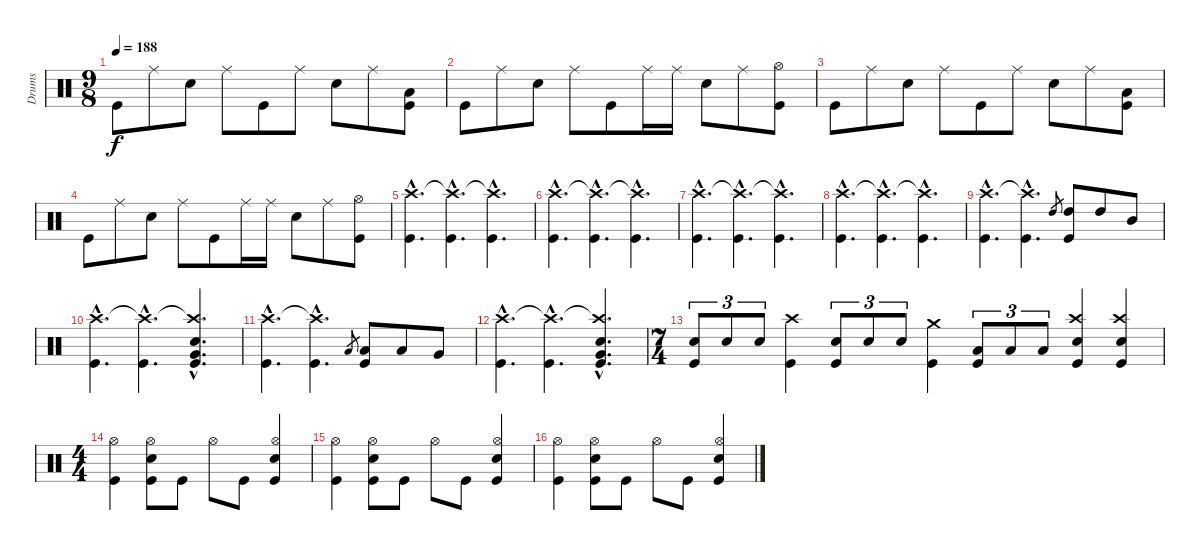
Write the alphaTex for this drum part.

\track ("Drums" "Drums") {instrument percussion}
\staff {score}
\articulation defaults
\ts (9 8)
\tempo 188
\clef neutral
\ks c "Kick (hit)".8{dy f} "Ride (middle)".8 "Snare (hit) 2".8 "Ride (middle)".8 "Kick (hit)".8 "Ride (middle)".8 "Snare (hit) 2".8 "Ride (middle)".8
("Low Tom (hit)" "Kick (hit)").8 |
"Kick (hit)".8 "Ride (middle)".8 "Snare (hit) 2".8 "Ride (middle)".8 "Kick (hit)".8 "Ride (middle)".16 "Ride (middle)".16 "Snare (hit) 2".8 "Ride (middle)".8 ("Hi-Hat (open)" "Kick (hit)").8 |
"Kick (hit)".8 "Ride (middle)".8 "Snare (hit) 2".8 "Ride (middle)".8 "Kick (hit)".8 "Ride (middle)".8 "Snare (hit) 2".8 "Ride (middle)".8 ("Low Tom (hit)" "Kick (hit)").8 |
"Kick (hit)".8 "Ride (middle)".8 "Snare (hit) 2".8 "Ride (middle)".8 "Kick (hit)".8 "Ride (middle)".16 "Ride (middle)".16 "Snare (hit) 2".8 "Ride (middle)".8 ("Hi-Hat (open)" "Kick (hit)").8 |
("Crash high (hit)"{hac} "Kick (hit)"{hac}).4{d} ("Crash high (hit)"{hac t} "Kick (hit)"{hac}).4{d} ("Crash high (hit)"{hac t} "Kick (hit)"{hac}).4{d} |
("Crash high (hit)"{hac} "Kick (hit)"{hac}).4{d} ("Crash high (hit)"{hac t} "Kick (hit)"{hac}).4{d} ("Crash high (hit)"{hac t} "Kick (hit)"{hac}).4{d} |
("Crash high (hit)"{hac} "Kick (hit)"{hac}).4{d} ("Crash high (hit)"{hac t} "Kick (hit)"{hac}).4{d} ("Crash high (hit)"{hac t} "Kick (hit)"{hac}).4{d} |
("Crash high (hit)"{hac} "Kick (hit)"{hac}).4{d} ("Crash high (hit)"{hac t} "Kick (hit)"{hac}).4{d} ("Crash high (hit)"{hac t} "Kick (hit)"{hac}).4{d} |
("Crash high (hit)"{hac} "Kick (hit)"{hac}).4{d} ("Crash high (hit)"{hac t} "Kick (hit)"{hac}).4{d} "High Tom (hit)".8{gr} ("High Tom (hit)" "Kick (hit)").8 "High Tom (hit)".8 "Mid Tom (hit)".8 |
("Crash high (hit)"{hac} "Kick (hit)"{hac}).4{d} ("Crash high (hit)"{hac t} "Kick (hit)"{hac}).4{d} ("Crash high (hit)"{hac t} "Electric Snare (hit)"{hac} "Very Low Tom (hit)"{hac} "Kick (hit)"{hac}).4{d} |
("Crash high (hit)"{hac} "Kick (hit)"{hac}).4{d} ("Crash high (hit)"{hac t} "Kick (hit)"{hac}).4{d} "Low Tom (hit)".8{gr} ("Low Tom (hit)" "Kick (hit)").8 "Low Tom (hit)".8 "Very Low Tom (hit)".8 |
("Crash high (hit)"{hac} "Kick (hit)"{hac}).4{d} ("Crash high (hit)"{hac t} "Kick (hit)"{hac}).4{d} ("Crash high (hit)"{hac t} "Electric Snare (hit)"{hac} "Very Low Tom (hit)"{hac} "Kick (hit)"{hac}).4{d} |
\ts (7 4)
("Electric Snare (hit)" "Kick (hit)").8{tu (3 2)} "Electric Snare (hit)".8{tu (3 2)} "Electric Snare (hit)".8{tu (3 2)} ("Crash high (hit)" "Kick (hit)").4 ("Snare (hit) 2" "Kick (hit)").8{tu (3 2)} "Snare (hit) 2".8{tu (3 2)} "Snare (hit) 2".8{tu (3 2)} ("Crash medium (hit)" "Kick (hit)").4 ("Low Tom (hit)" "Kick (hit)").8{tu (3 2)} "Low Tom (hit)".8{tu (3 2)} "Low Tom (hit)".8{tu (3 2)} ("Crash high (hit)" "Electric Snare (hit)" "Kick (hit)").4 ("Crash high (hit)" "Electric Snare (hit)" "Kick (hit)").4 |
\ts (4 4)
("Hi-Hat (open)" "Kick (hit)").4 ("Hi-Hat (open)" "Snare (hit) 2" "Kick (hit)").8 "Kick (hit)".8 "Hi-Hat (open)".8 "Kick (hit)".8 ("Hi-Hat (open)" "Electric Snare (hit)" "Kick (hit)").4 |
("Hi-Hat (open)" "Kick (hit)").4 ("Hi-Hat (open)" "Snare (hit) 2" "Kick (hit)").8 "Kick (hit)".8 "Hi-Hat (open)".8 "Kick (hit)".8 ("Hi-Hat (open)" "Electric Snare (hit)" "Kick (hit)").4 |
("Hi-Hat (open)" "Kick (hit)").4 ("Hi-Hat (open)" "Snare (hit) 2" "Kick (hit)").8 "Kick (hit)".8 "Hi-Hat (open)".8 "Kick (hit)".8 ("Hi-Hat (open)" "Electric Snare (hit)" "Kick (hit)").4
